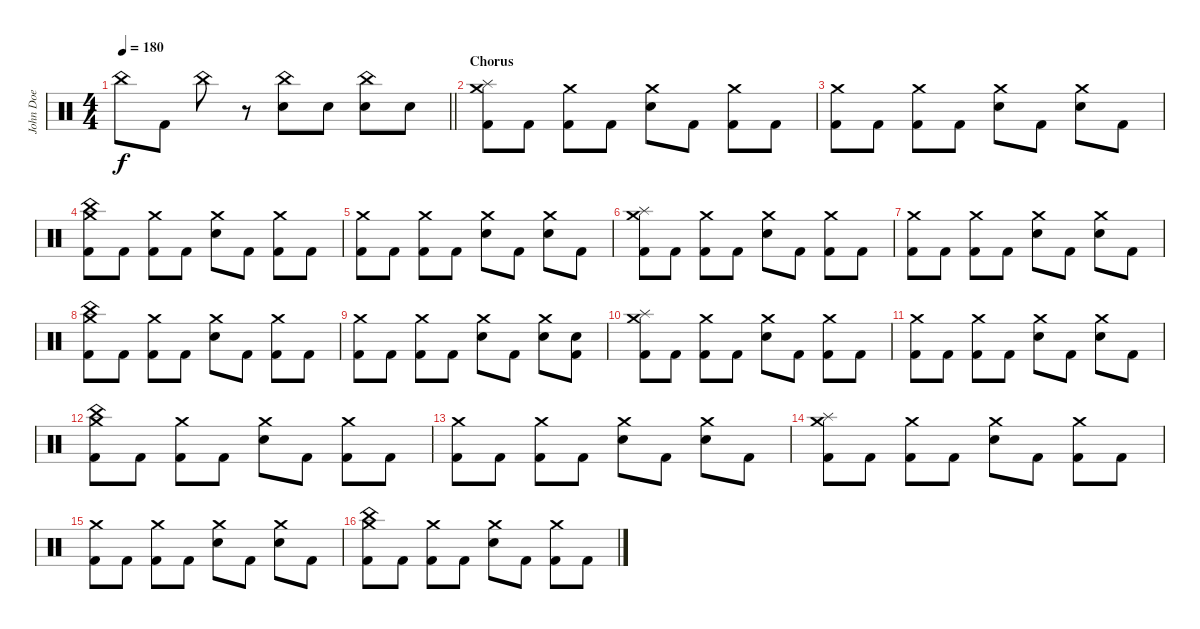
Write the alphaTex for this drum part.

\track ("John Doe" "John Doe") {instrument percussion}
\staff {score}
\articulation defaults
\ts (4 4)
\tempo 180
\clef neutral
\barLineRight lightlight
\ks c "China (hit)".8{dy f} "Kick (hit) 2".8 "China (hit)".8
r.8 ("China (hit)" "Electric Snare (hit)").8 "Electric Snare (hit)".8 ("China (hit)" "Electric Snare (hit)").8 "Electric Snare (hit)".8 |
\section ("" "Chorus")
("Splash (hit)" "Crash medium (hit)" "Kick (hit) 2").8 "Kick (hit) 2".8 ("Crash medium (hit)" "Kick (hit) 2").8 "Kick (hit) 2".8 ("Crash medium (hit)" "Electric Snare (hit)").8 "Kick (hit) 2".8 ("Crash medium (hit)" "Kick (hit) 2").8 "Kick (hit) 2".8 |
("Crash medium (hit)" "Kick (hit) 2").8 "Kick (hit) 2".8 ("Crash medium (hit)" "Kick (hit) 2").8 "Kick (hit) 2".8 ("Crash medium (hit)" "Electric Snare (hit)").8 "Kick (hit) 2".8 ("Crash medium (hit)" "Electric Snare (hit)").8 "Kick (hit) 2".8 |
("China (hit)" "Crash medium (hit)" "Kick (hit) 2").8 "Kick (hit) 2".8 ("Crash medium (hit)" "Kick (hit) 2").8 "Kick (hit) 2".8 ("Crash medium (hit)" "Electric Snare (hit)").8 "Kick (hit) 2".8 ("Crash medium (hit)" "Kick (hit) 2").8 "Kick (hit) 2".8 |
("Crash medium (hit)" "Kick (hit) 2").8 "Kick (hit) 2".8 ("Crash medium (hit)" "Kick (hit) 2").8 "Kick (hit) 2".8 ("Crash medium (hit)" "Electric Snare (hit)").8 "Kick (hit) 2".8 ("Crash medium (hit)" "Electric Snare (hit)").8 "Kick (hit) 2".8 |
("Splash (hit)" "Crash medium (hit)" "Kick (hit) 2").8 "Kick (hit) 2".8 ("Crash medium (hit)" "Kick (hit) 2").8 "Kick (hit) 2".8 ("Crash medium (hit)" "Electric Snare (hit)").8 "Kick (hit) 2".8 ("Crash medium (hit)" "Kick (hit) 2").8 "Kick (hit) 2".8 |
("Crash medium (hit)" "Kick (hit) 2").8 "Kick (hit) 2".8 ("Crash medium (hit)" "Kick (hit) 2").8 "Kick (hit) 2".8 ("Crash medium (hit)" "Electric Snare (hit)").8 "Kick (hit) 2".8 ("Crash medium (hit)" "Electric Snare (hit)").8 "Kick (hit) 2".8 |
("China (hit)" "Crash medium (hit)" "Kick (hit) 2").8 "Kick (hit) 2".8 ("Crash medium (hit)" "Kick (hit) 2").8 "Kick (hit) 2".8 ("Crash medium (hit)" "Electric Snare (hit)").8 "Kick (hit) 2".8 ("Crash medium (hit)" "Kick (hit) 2").8 "Kick (hit) 2".8 |
("Crash medium (hit)" "Kick (hit) 2").8 "Kick (hit) 2".8 ("Crash medium (hit)" "Kick (hit) 2").8 "Kick (hit) 2".8 ("Crash medium (hit)" "Electric Snare (hit)").8 "Kick (hit) 2".8 ("Crash medium (hit)" "Electric Snare (hit)").8 ("Electric Snare (hit)" "Kick (hit) 2").8 |
("Splash (hit)" "Crash medium (hit)" "Kick (hit) 2").8 "Kick (hit) 2".8 ("Crash medium (hit)" "Kick (hit) 2").8 "Kick (hit) 2".8 ("Crash medium (hit)" "Electric Snare (hit)").8 "Kick (hit) 2".8 ("Crash medium (hit)" "Kick (hit) 2").8 "Kick (hit) 2".8 |
("Crash medium (hit)" "Kick (hit) 2").8 "Kick (hit) 2".8 ("Crash medium (hit)" "Kick (hit) 2").8 "Kick (hit) 2".8 ("Crash medium (hit)" "Electric Snare (hit)").8 "Kick (hit) 2".8 ("Crash medium (hit)" "Electric Snare (hit)").8 "Kick (hit) 2".8 |
("China (hit)" "Crash medium (hit)" "Kick (hit) 2").8 "Kick (hit) 2".8 ("Crash medium (hit)" "Kick (hit) 2").8 "Kick (hit) 2".8 ("Crash medium (hit)" "Electric Snare (hit)").8 "Kick (hit) 2".8 ("Crash medium (hit)" "Kick (hit) 2").8 "Kick (hit) 2".8 |
("Crash medium (hit)" "Kick (hit) 2").8 "Kick (hit) 2".8 ("Crash medium (hit)" "Kick (hit) 2").8 "Kick (hit) 2".8 ("Crash medium (hit)" "Electric Snare (hit)").8 "Kick (hit) 2".8 ("Crash medium (hit)" "Electric Snare (hit)").8 "Kick (hit) 2".8 |
("Splash (hit)" "Crash medium (hit)" "Kick (hit) 2").8 "Kick (hit) 2".8 ("Crash medium (hit)" "Kick (hit) 2").8 "Kick (hit) 2".8 ("Crash medium (hit)" "Electric Snare (hit)").8 "Kick (hit) 2".8 ("Crash medium (hit)" "Kick (hit) 2").8 "Kick (hit) 2".8 |
("Crash medium (hit)" "Kick (hit) 2").8 "Kick (hit) 2".8 ("Crash medium (hit)" "Kick (hit) 2").8 "Kick (hit) 2".8 ("Crash medium (hit)" "Electric Snare (hit)").8 "Kick (hit) 2".8 ("Crash medium (hit)" "Electric Snare (hit)").8 "Kick (hit) 2".8 |
("China (hit)" "Crash medium (hit)" "Kick (hit) 2").8 "Kick (hit) 2".8 ("Crash medium (hit)" "Kick (hit) 2").8 "Kick (hit) 2".8 ("Crash medium (hit)" "Electric Snare (hit)").8 "Kick (hit) 2".8 ("Crash medium (hit)" "Kick (hit) 2").8 "Kick (hit) 2".8
